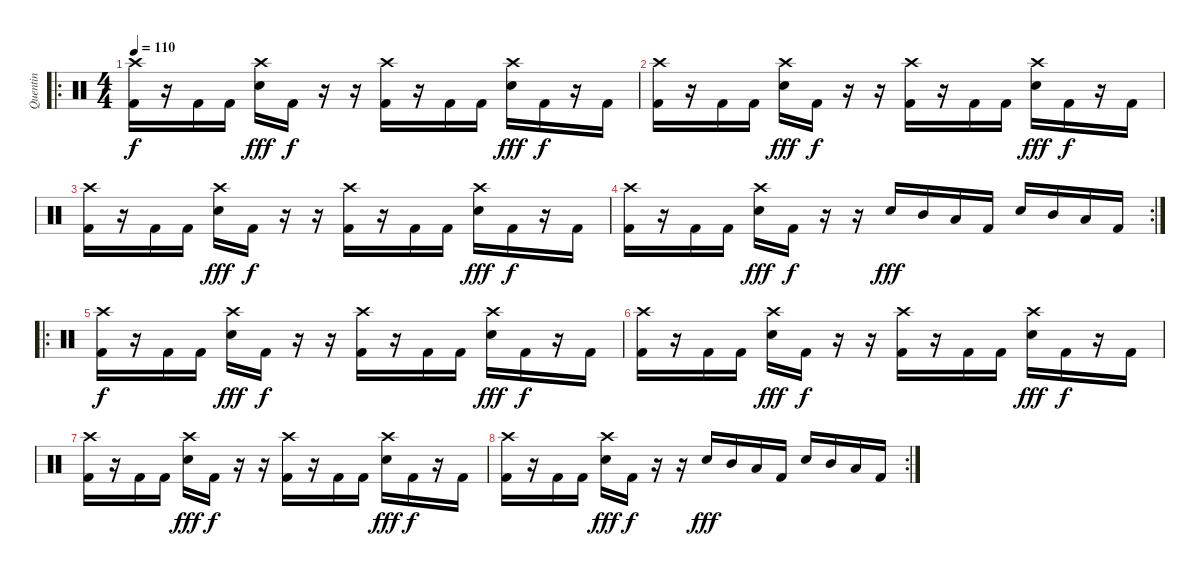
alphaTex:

\track ("Quentin" "Quentin") {instrument percussion}
\staff {score}
\articulation defaults
\ro
\ts (4 4)
\tempo 110
\clef neutral
\ks c
("Crash high (hit)" "Kick (hit) 2").16{dy f} r.16 "Kick (hit) 2".16 "Kick (hit) 2".16 ("Crash high (hit)" "Electric Snare (hit)").16{dy fff} "Kick (hit) 2".16{dy f} r.16 r.16 ("Crash high (hit)" "Kick (hit) 2").16 r.16 "Kick (hit) 2".16 "Kick (hit) 2".16 ("Crash high (hit)" "Electric Snare (hit)").16{dy fff} "Kick (hit) 2".16{dy f} r.16 "Kick (hit) 2".16 |
("Crash high (hit)" "Kick (hit) 2").16 r.16 "Kick (hit) 2".16 "Kick (hit) 2".16 ("Crash high (hit)" "Electric Snare (hit)").16{dy fff} "Kick (hit) 2".16{dy f} r.16 r.16 ("Crash high (hit)" "Kick (hit) 2").16 r.16 "Kick (hit) 2".16 "Kick (hit) 2".16 ("Crash high (hit)" "Electric Snare (hit)").16{dy fff} "Kick (hit) 2".16{dy f} r.16 "Kick (hit) 2".16 |
("Crash high (hit)" "Kick (hit) 2").16 r.16 "Kick (hit) 2".16 "Kick (hit) 2".16 ("Crash high (hit)" "Electric Snare (hit)").16{dy fff} "Kick (hit) 2".16{dy f} r.16 r.16 ("Crash high (hit)" "Kick (hit) 2").16 r.16 "Kick (hit) 2".16 "Kick (hit) 2".16 ("Crash high (hit)" "Electric Snare (hit)").16{dy fff} "Kick (hit) 2".16{dy f} r.16 "Kick (hit) 2".16 |
\rc 2
("Crash high (hit)" "Kick (hit) 2").16 r.16 "Kick (hit) 2".16 "Kick (hit) 2".16 ("Crash high (hit)" "Electric Snare (hit)").16{dy fff} "Kick (hit) 2".16{dy f} r.16 r.16 "Electric Snare (hit)".16{dy fff} "Mid Tom (hit)".16 "Low Tom (hit)".16 "Kick (hit) 2".16 "Electric Snare (hit)".16 "Mid Tom (hit)".16 "Low Tom (hit)".16 "Kick (hit) 2".16 |
\ro
("Crash high (hit)" "Kick (hit) 2").16{dy f} r.16 "Kick (hit) 2".16 "Kick (hit) 2".16 ("Crash high (hit)" "Electric Snare (hit)").16{dy fff} "Kick (hit) 2".16{dy f} r.16 r.16 ("Crash high (hit)" "Kick (hit) 2").16 r.16 "Kick (hit) 2".16 "Kick (hit) 2".16 ("Crash high (hit)" "Electric Snare (hit)").16{dy fff} "Kick (hit) 2".16{dy f} r.16 "Kick (hit) 2".16 |
("Crash high (hit)" "Kick (hit) 2").16 r.16 "Kick (hit) 2".16 "Kick (hit) 2".16 ("Crash high (hit)" "Electric Snare (hit)").16{dy fff} "Kick (hit) 2".16{dy f} r.16 r.16 ("Crash high (hit)" "Kick (hit) 2").16 r.16 "Kick (hit) 2".16 "Kick (hit) 2".16 ("Crash high (hit)" "Electric Snare (hit)").16{dy fff} "Kick (hit) 2".16{dy f} r.16 "Kick (hit) 2".16 |
("Crash high (hit)" "Kick (hit) 2").16 r.16 "Kick (hit) 2".16 "Kick (hit) 2".16 ("Crash high (hit)" "Electric Snare (hit)").16{dy fff} "Kick (hit) 2".16{dy f} r.16 r.16 ("Crash high (hit)" "Kick (hit) 2").16 r.16 "Kick (hit) 2".16 "Kick (hit) 2".16 ("Crash high (hit)" "Electric Snare (hit)").16{dy fff} "Kick (hit) 2".16{dy f} r.16 "Kick (hit) 2".16 |
\rc 2
("Crash high (hit)" "Kick (hit) 2").16 r.16 "Kick (hit) 2".16 "Kick (hit) 2".16 ("Crash high (hit)" "Electric Snare (hit)").16{dy fff} "Kick (hit) 2".16{dy f} r.16 r.16 "Electric Snare (hit)".16{dy fff} "Mid Tom (hit)".16 "Low Tom (hit)".16 "Kick (hit) 2".16 "Electric Snare (hit)".16 "Mid Tom (hit)".16 "Low Tom (hit)".16 "Kick (hit) 2".16
